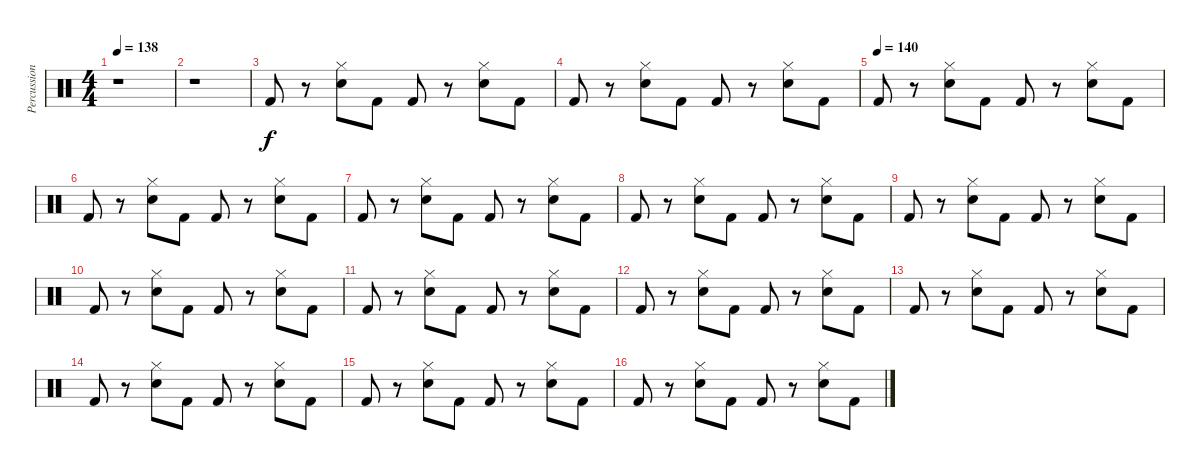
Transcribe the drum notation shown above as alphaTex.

\track ("Percussion" "Percussion") {instrument percussion}
\staff {score}
\articulation defaults
\ts (4 4)
\tempo 138
\clef neutral
\ks c
r.1{dy f} |
r.1 |
"Kick (hit) 2".8 r.8 ("Hi-Hat (closed)" "Snare (hit) 2").8 "Kick (hit) 2".8 "Kick (hit) 2".8 r.8 ("Hi-Hat (closed)" "Snare (hit) 2").8 "Kick (hit) 2".8 |
"Kick (hit) 2".8 r.8 ("Hi-Hat (closed)" "Snare (hit) 2").8 "Kick (hit) 2".8 "Kick (hit) 2".8 r.8 ("Hi-Hat (closed)" "Snare (hit) 2").8 "Kick (hit) 2".8 |
\tempo (140)
"Kick (hit) 2".8 r.8 ("Hi-Hat (closed)" "Snare (hit) 2").8 "Kick (hit) 2".8 "Kick (hit) 2".8 r.8 ("Hi-Hat (closed)" "Snare (hit) 2").8 "Kick (hit) 2".8 |
"Kick (hit) 2".8 r.8 ("Hi-Hat (closed)" "Snare (hit) 2").8 "Kick (hit) 2".8 "Kick (hit) 2".8 r.8 ("Hi-Hat (closed)" "Snare (hit) 2").8 "Kick (hit) 2".8 |
"Kick (hit) 2".8 r.8 ("Hi-Hat (closed)" "Snare (hit) 2").8 "Kick (hit) 2".8 "Kick (hit) 2".8 r.8 ("Hi-Hat (closed)" "Snare (hit) 2").8 "Kick (hit) 2".8 |
"Kick (hit) 2".8 r.8 ("Hi-Hat (closed)" "Snare (hit) 2").8 "Kick (hit) 2".8 "Kick (hit) 2".8 r.8 ("Hi-Hat (closed)" "Snare (hit) 2").8 "Kick (hit) 2".8 |
"Kick (hit) 2".8 r.8 ("Hi-Hat (closed)" "Snare (hit) 2").8 "Kick (hit) 2".8 "Kick (hit) 2".8 r.8 ("Hi-Hat (closed)" "Snare (hit) 2").8 "Kick (hit) 2".8 |
"Kick (hit) 2".8 r.8 ("Hi-Hat (closed)" "Snare (hit) 2").8 "Kick (hit) 2".8 "Kick (hit) 2".8 r.8 ("Hi-Hat (closed)" "Snare (hit) 2").8 "Kick (hit) 2".8 |
"Kick (hit) 2".8 r.8 ("Hi-Hat (closed)" "Snare (hit) 2").8 "Kick (hit) 2".8 "Kick (hit) 2".8 r.8 ("Hi-Hat (closed)" "Snare (hit) 2").8 "Kick (hit) 2".8 |
"Kick (hit) 2".8 r.8 ("Hi-Hat (closed)" "Snare (hit) 2").8 "Kick (hit) 2".8 "Kick (hit) 2".8 r.8 ("Hi-Hat (closed)" "Snare (hit) 2").8 "Kick (hit) 2".8 |
"Kick (hit) 2".8 r.8 ("Hi-Hat (closed)" "Snare (hit) 2").8 "Kick (hit) 2".8 "Kick (hit) 2".8 r.8 ("Hi-Hat (closed)" "Snare (hit) 2").8 "Kick (hit) 2".8 |
"Kick (hit) 2".8 r.8 ("Hi-Hat (closed)" "Snare (hit) 2").8 "Kick (hit) 2".8 "Kick (hit) 2".8 r.8 ("Hi-Hat (closed)" "Snare (hit) 2").8 "Kick (hit) 2".8 |
"Kick (hit) 2".8 r.8 ("Hi-Hat (closed)" "Snare (hit) 2").8 "Kick (hit) 2".8 "Kick (hit) 2".8 r.8 ("Hi-Hat (closed)" "Snare (hit) 2").8 "Kick (hit) 2".8 |
"Kick (hit) 2".8 r.8 ("Hi-Hat (closed)" "Snare (hit) 2").8 "Kick (hit) 2".8 "Kick (hit) 2".8 r.8 ("Hi-Hat (closed)" "Snare (hit) 2").8 "Kick (hit) 2".8
